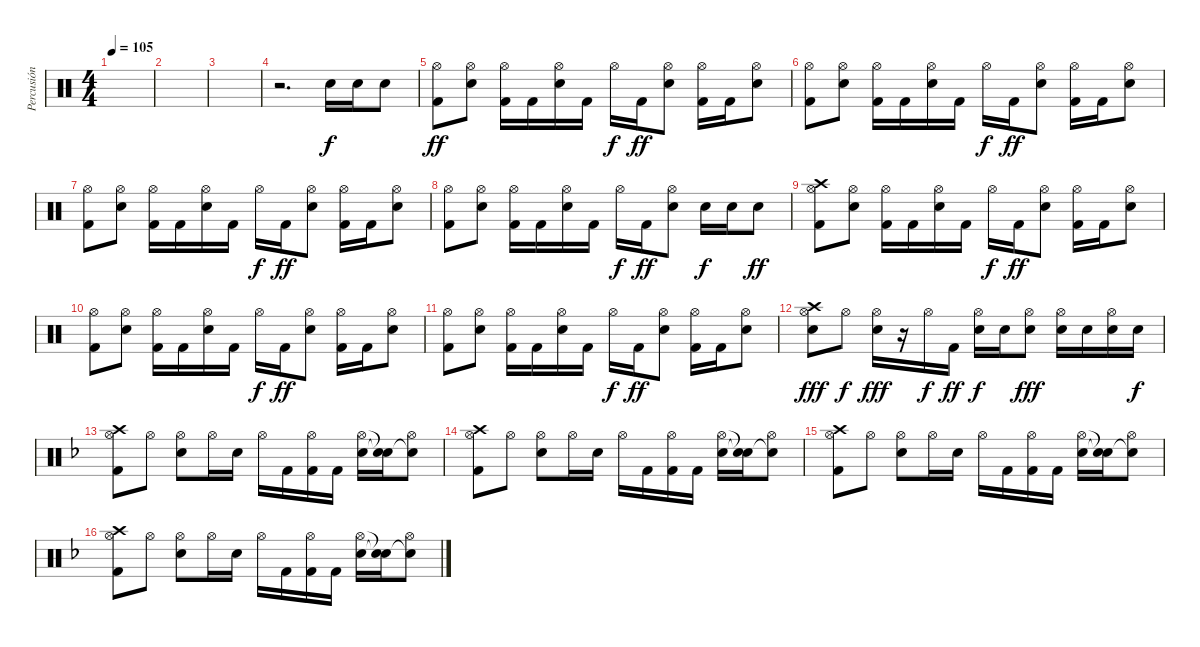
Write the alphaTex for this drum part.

\track ("Percusión" "Percusión") {instrument percussion}
\staff {score}
\articulation defaults
\ts (4 4)
\tempo 105
\clef neutral
\ks c
|
|
|
r.2{d} "Snare (hit) 2".16 "Snare (hit) 2".16 "Snare (hit) 2".8 |
("Hi-Hat (open)" "Kick (hit) 2").8{dy ff} ("Hi-Hat (open)" "Snare (hit) 2").8 ("Hi-Hat (open)" "Kick (hit) 2").16 "Kick (hit) 2".16 ("Hi-Hat (open)" "Snare (hit) 2").16 "Kick (hit) 2".16 "Hi-Hat (open)".16{dy f} "Kick (hit) 2".16{dy ff} ("Hi-Hat (open)" "Snare (hit) 2").8 ("Hi-Hat (open)" "Kick (hit) 2").16 "Kick (hit) 2".16 ("Hi-Hat (open)" "Snare (hit) 2").8 |
("Hi-Hat (open)" "Kick (hit) 2").8 ("Hi-Hat (open)" "Snare (hit) 2").8 ("Hi-Hat (open)" "Kick (hit) 2").16 "Kick (hit) 2".16 ("Hi-Hat (open)" "Snare (hit) 2").16 "Kick (hit) 2".16 "Hi-Hat (open)".16{dy f} "Kick (hit) 2".16{dy ff} ("Hi-Hat (open)" "Snare (hit) 2").8 ("Hi-Hat (open)" "Kick (hit) 2").16 "Kick (hit) 2".16 ("Hi-Hat (open)" "Snare (hit) 2").8 |
("Hi-Hat (open)" "Kick (hit) 2").8 ("Hi-Hat (open)" "Snare (hit) 2").8 ("Hi-Hat (open)" "Kick (hit) 2").16 "Kick (hit) 2".16 ("Hi-Hat (open)" "Snare (hit) 2").16 "Kick (hit) 2".16 "Hi-Hat (open)".16{dy f} "Kick (hit) 2".16{dy ff} ("Hi-Hat (open)" "Snare (hit) 2").8 ("Hi-Hat (open)" "Kick (hit) 2").16 "Kick (hit) 2".16 ("Hi-Hat (open)" "Snare (hit) 2").8 |
("Hi-Hat (open)" "Kick (hit) 2").8 ("Hi-Hat (open)" "Snare (hit) 2").8 ("Hi-Hat (open)" "Kick (hit) 2").16 "Kick (hit) 2".16 ("Hi-Hat (open)" "Snare (hit) 2").16 "Kick (hit) 2".16 "Hi-Hat (open)".16{dy f} "Kick (hit) 2".16{dy ff} ("Hi-Hat (open)" "Snare (hit) 2").8 "Snare (hit) 2".16{dy f} "Snare (hit) 2".16 "Snare (hit) 2".8{dy ff} |
("Hi-Hat (open)" "Crash high (hit)" "Kick (hit) 2").8 ("Hi-Hat (open)" "Snare (hit) 2").8 ("Hi-Hat (open)" "Kick (hit) 2").16 "Kick (hit) 2".16 ("Hi-Hat (open)" "Snare (hit) 2").16 "Kick (hit) 2".16 "Hi-Hat (open)".16{dy f} "Kick (hit) 2".16{dy ff} ("Hi-Hat (open)" "Snare (hit) 2").8 ("Hi-Hat (open)" "Kick (hit) 2").16 "Kick (hit) 2".16 ("Hi-Hat (open)" "Snare (hit) 2").8 |
("Hi-Hat (open)" "Kick (hit) 2").8 ("Hi-Hat (open)" "Snare (hit) 2").8 ("Hi-Hat (open)" "Kick (hit) 2").16 "Kick (hit) 2".16 ("Hi-Hat (open)" "Snare (hit) 2").16 "Kick (hit) 2".16 "Hi-Hat (open)".16{dy f} "Kick (hit) 2".16{dy ff} ("Hi-Hat (open)" "Snare (hit) 2").8 ("Hi-Hat (open)" "Kick (hit) 2").16 "Kick (hit) 2".16 ("Hi-Hat (open)" "Snare (hit) 2").8 |
("Hi-Hat (open)" "Kick (hit) 2").8 ("Hi-Hat (open)" "Snare (hit) 2").8 ("Hi-Hat (open)" "Kick (hit) 2").16 "Kick (hit) 2".16 ("Hi-Hat (open)" "Snare (hit) 2").16 "Kick (hit) 2".16 "Hi-Hat (open)".16{dy f} "Kick (hit) 2".16{dy ff} ("Hi-Hat (open)" "Snare (hit) 2").8 ("Hi-Hat (open)" "Kick (hit) 2").16 "Kick (hit) 2".16 ("Hi-Hat (open)" "Snare (hit) 2").8 |
("Hi-Hat (open)" "Crash high (hit)" "Snare (hit) 2").8{dy fff} "Hi-Hat (open)".8{dy f} ("Hi-Hat (open)" "Snare (hit) 2").16{dy fff} r.16 "Hi-Hat (open)".16{dy f} "Kick (hit) 2".16{dy ff} ("Hi-Hat (open)" "Snare (hit) 2").16{dy f} "Snare (hit) 2".16 ("Hi-Hat (open)" "Snare (hit) 2").8{dy fff} ("Hi-Hat (open)" "Snare (hit) 2").16 "Snare (hit) 2".16 ("Hi-Hat (open)" "Snare (hit) 2").16 "Snare (hit) 2".16{dy f} |
\ks f
("Hi-Hat (open)" "Crash high (hit)" "Kick (hit) 2").8 "Hi-Hat (open)".8 ("Hi-Hat (open)" "Snare (hit) 2").8 "Hi-Hat (open)".16 "Snare (hit) 2".16 "Hi-Hat (open)".16 "Kick (hit) 2".16 ("Hi-Hat (open)" "Kick (hit) 2").16 "Kick (hit) 2".16 ("Hi-Hat (open)" "Snare (hit) 2").16 ("Snare (hit)"{t} "Snare (hit)"{t}).16 ("Hi-Hat (open)" "Snare (hit)"{t}).8 |
("Hi-Hat (open)" "Crash high (hit)" "Kick (hit) 2").8 "Hi-Hat (open)".8 ("Hi-Hat (open)" "Snare (hit) 2").8 "Hi-Hat (open)".16 "Snare (hit) 2".16 "Hi-Hat (open)".16 "Kick (hit) 2".16 ("Hi-Hat (open)" "Kick (hit) 2").16 "Kick (hit) 2".16 ("Hi-Hat (open)" "Snare (hit) 2").16 ("Snare (hit)"{t} "Snare (hit)"{t}).16 ("Hi-Hat (open)" "Snare (hit)"{t}).8 |
("Hi-Hat (open)" "Crash high (hit)" "Kick (hit) 2").8 "Hi-Hat (open)".8 ("Hi-Hat (open)" "Snare (hit) 2").8 "Hi-Hat (open)".16 "Snare (hit) 2".16 "Hi-Hat (open)".16 "Kick (hit) 2".16 ("Hi-Hat (open)" "Kick (hit) 2").16 "Kick (hit) 2".16 ("Hi-Hat (open)" "Snare (hit) 2").16 ("Snare (hit)"{t} "Snare (hit)"{t}).16 ("Hi-Hat (open)" "Snare (hit)"{t}).8 |
("Hi-Hat (open)" "Crash high (hit)" "Kick (hit) 2").8 "Hi-Hat (open)".8 ("Hi-Hat (open)" "Snare (hit) 2").8 "Hi-Hat (open)".16 "Snare (hit) 2".16 "Hi-Hat (open)".16 "Kick (hit) 2".16 ("Hi-Hat (open)" "Kick (hit) 2").16 "Kick (hit) 2".16 ("Hi-Hat (open)" "Snare (hit) 2").16 ("Snare (hit)"{t} "Snare (hit)"{t}).16 ("Hi-Hat (open)" "Snare (hit)"{t}).8
